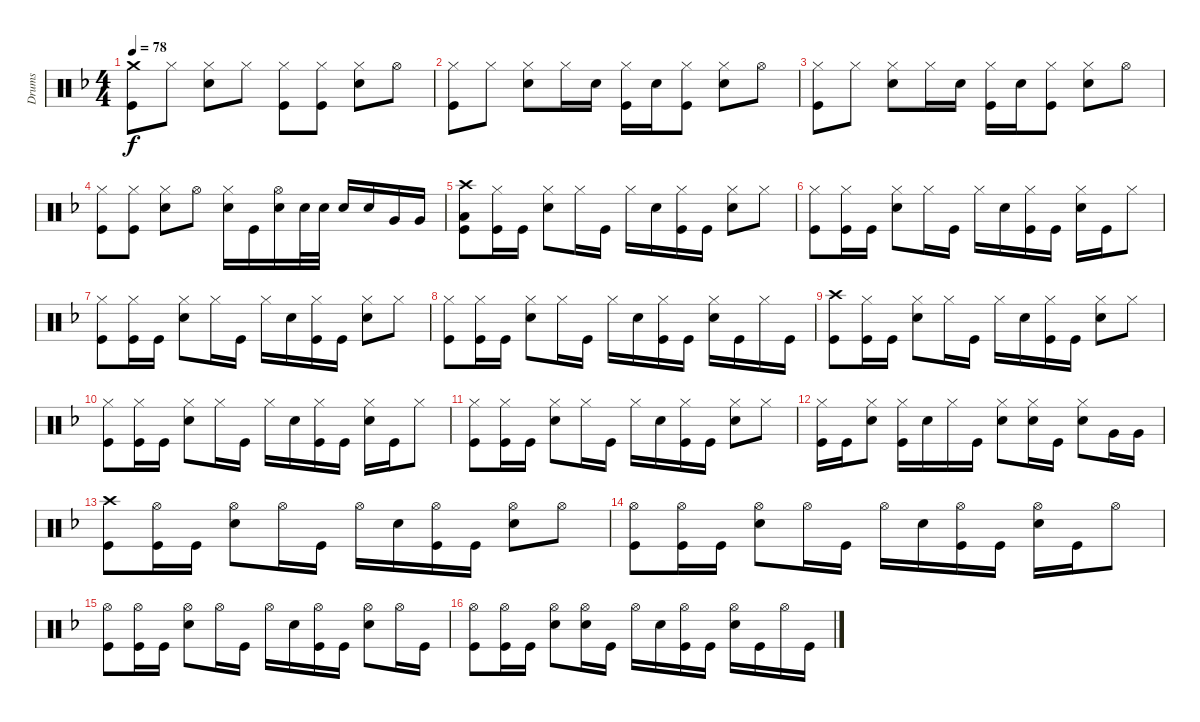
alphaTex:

\track ("Drums" "Drums") {instrument percussion}
\staff {score}
\articulation defaults
\ts (4 4)
\tempo 78
\clef neutral
\ks dminor
("Crash medium (hit)" "Kick (hit)").8{dy f} "Hi-Hat (closed)".8 ("Hi-Hat (closed)" "Snare (hit) 2").8 "Hi-Hat (closed)".8 ("Hi-Hat (closed)" "Kick (hit)").8 ("Hi-Hat (closed)" "Kick (hit)").8 ("Hi-Hat (closed)" "Snare (hit) 2").8 "Hi-Hat (open)".8 |
("Hi-Hat (closed)" "Kick (hit)").8 "Hi-Hat (closed)".8 ("Hi-Hat (closed)" "Snare (hit) 2").8 "Hi-Hat (closed)".16 "Snare (hit) 2".16 ("Hi-Hat (closed)" "Kick (hit)").16 "Snare (hit) 2".16 ("Hi-Hat (closed)" "Kick (hit)").8 ("Hi-Hat (closed)" "Snare (hit) 2").8 "Hi-Hat (open)".8 |
("Hi-Hat (closed)" "Kick (hit)").8 "Hi-Hat (closed)".8 ("Hi-Hat (closed)" "Snare (hit) 2").8 "Hi-Hat (closed)".16 "Snare (hit) 2".16 ("Hi-Hat (closed)" "Kick (hit)").16 "Snare (hit) 2".16 ("Hi-Hat (closed)" "Kick (hit)").8 ("Hi-Hat (closed)" "Snare (hit) 2").8 "Hi-Hat (open)".8 |
("Hi-Hat (closed)" "Kick (hit)").8 ("Hi-Hat (closed)" "Kick (hit)").8 ("Hi-Hat (closed)" "Snare (hit) 2").8 "Hi-Hat (open)".8 ("Hi-Hat (closed)" "Snare (hit) 2").16 "Kick (hit)".16 ("Hi-Hat (open)" "Snare (hit) 2").16 "Snare (hit) 2".32 "Snare (hit) 2".32 "Snare (hit) 2".16 "Snare (hit) 2".16 "Very Low Tom (hit)".16 "Very Low Tom (hit)".16 |
("Crash high (hit)" "Low Floor Tom (hit)" "Kick (hit)").8 ("Hi-Hat (closed)" "Kick (hit)").16 "Kick (hit)".16 ("Hi-Hat (closed)" "Snare (hit) 2").8 "Hi-Hat (closed)".16 "Kick (hit)".16 "Hi-Hat (closed)".16 "Snare (hit) 2".16 ("Hi-Hat (closed)" "Kick (hit)").16 "Kick (hit)".16 ("Hi-Hat (closed)" "Snare (hit) 2").8 "Hi-Hat (closed)".8 |
("Hi-Hat (closed)" "Kick (hit)").8 ("Hi-Hat (closed)" "Kick (hit)").16 "Kick (hit)".16 ("Hi-Hat (closed)" "Snare (hit) 2").8 "Hi-Hat (closed)".16 "Kick (hit)".16 "Hi-Hat (closed)".16 "Snare (hit) 2".16 ("Hi-Hat (closed)" "Kick (hit)").16 "Kick (hit)".16 ("Hi-Hat (closed)" "Snare (hit) 2").16 "Kick (hit)".16 "Hi-Hat (closed)".8 |
("Hi-Hat (closed)" "Kick (hit)").8 ("Hi-Hat (closed)" "Kick (hit)").16 "Kick (hit)".16 ("Hi-Hat (closed)" "Snare (hit) 2").8 "Hi-Hat (closed)".16 "Kick (hit)".16 "Hi-Hat (closed)".16 "Snare (hit) 2".16 ("Hi-Hat (closed)" "Kick (hit)").16 "Kick (hit)".16 ("Hi-Hat (closed)" "Snare (hit) 2").8 "Hi-Hat (closed)".8 |
("Hi-Hat (closed)" "Kick (hit)").8 ("Hi-Hat (closed)" "Kick (hit)").16 "Kick (hit)".16 ("Hi-Hat (closed)" "Snare (hit) 2").8 "Hi-Hat (closed)".16 "Kick (hit)".16 "Hi-Hat (closed)".16 "Snare (hit) 2".16 ("Hi-Hat (closed)" "Kick (hit)").16 "Kick (hit)".16 ("Hi-Hat (closed)" "Snare (hit) 2").16 "Kick (hit)".16 "Hi-Hat (closed)".16 "Kick (hit)".16 |
("Crash high (hit)" "Kick (hit)").8 ("Hi-Hat (closed)" "Kick (hit)").16 "Kick (hit)".16 ("Hi-Hat (closed)" "Snare (hit) 2").8 "Hi-Hat (closed)".16 "Kick (hit)".16 "Hi-Hat (closed)".16 "Snare (hit) 2".16 ("Hi-Hat (closed)" "Kick (hit)").16 "Kick (hit)".16 ("Hi-Hat (closed)" "Snare (hit) 2").8 "Hi-Hat (closed)".8 |
("Hi-Hat (closed)" "Kick (hit)").8 ("Hi-Hat (closed)" "Kick (hit)").16 "Kick (hit)".16 ("Hi-Hat (closed)" "Snare (hit) 2").8 "Hi-Hat (closed)".16 "Kick (hit)".16 "Hi-Hat (closed)".16 "Snare (hit) 2".16 ("Hi-Hat (closed)" "Kick (hit)").16 "Kick (hit)".16 ("Hi-Hat (closed)" "Snare (hit) 2").16 "Kick (hit)".16 "Hi-Hat (closed)".8 |
("Hi-Hat (closed)" "Kick (hit)").8 ("Hi-Hat (closed)" "Kick (hit)").16 "Kick (hit)".16 ("Hi-Hat (closed)" "Snare (hit) 2").8 "Hi-Hat (closed)".16 "Kick (hit)".16 "Hi-Hat (closed)".16 "Snare (hit) 2".16 ("Hi-Hat (closed)" "Kick (hit)").16 "Kick (hit)".16 ("Hi-Hat (closed)" "Snare (hit) 2").8 "Hi-Hat (closed)".8 |
("Hi-Hat (closed)" "Kick (hit)").16 "Kick (hit)".16 ("Hi-Hat (closed)" "Snare (hit) 2").8 ("Hi-Hat (closed)" "Kick (hit)").16 "Snare (hit) 2".16 "Hi-Hat (closed)".16 "Kick (hit)".16 ("Hi-Hat (closed)" "Snare (hit) 2").8 ("Hi-Hat (closed)" "Snare (hit) 2").16 "Kick (hit)".16 ("Hi-Hat (closed)" "Snare (hit) 2").8 "Very Low Tom (hit)".16 "Very Low Tom (hit)".16 |
("Crash high (hit)" "Kick (hit)").8 ("Hi-Hat (open)" "Kick (hit)").16 "Kick (hit)".16 ("Hi-Hat (open)" "Snare (hit) 2").8 "Hi-Hat (open)".16 "Kick (hit)".16 "Hi-Hat (open)".16 "Snare (hit) 2".16 ("Hi-Hat (open)" "Kick (hit)").16 "Kick (hit)".16 ("Hi-Hat (open)" "Snare (hit) 2").8 "Hi-Hat (open)".8 |
("Hi-Hat (open)" "Kick (hit)").8 ("Hi-Hat (open)" "Kick (hit)").16 "Kick (hit)".16 ("Hi-Hat (open)" "Snare (hit) 2").8 "Hi-Hat (open)".16 "Kick (hit)".16 "Hi-Hat (open)".16 "Snare (hit) 2".16 ("Hi-Hat (open)" "Kick (hit)").16 "Kick (hit)".16 ("Hi-Hat (open)" "Snare (hit) 2").16 "Kick (hit)".16 "Hi-Hat (open)".8 |
("Hi-Hat (open)" "Kick (hit)").8 ("Hi-Hat (open)" "Kick (hit)").16 "Kick (hit)".16 ("Hi-Hat (open)" "Snare (hit) 2").8 "Hi-Hat (open)".16 "Kick (hit)".16 "Hi-Hat (open)".16 "Snare (hit) 2".16 ("Hi-Hat (open)" "Kick (hit)").16 "Kick (hit)".16 ("Hi-Hat (open)" "Snare (hit) 2").8 "Hi-Hat (open)".16 "Kick (hit)".16 |
("Hi-Hat (open)" "Kick (hit)").8 ("Hi-Hat (open)" "Kick (hit)").16 "Kick (hit)".16 ("Hi-Hat (open)" "Snare (hit) 2").8 ("Hi-Hat (open)" "Snare (hit) 2").16 "Kick (hit)".16 "Hi-Hat (open)".16 "Snare (hit) 2".16 ("Hi-Hat (open)" "Kick (hit)").16 "Kick (hit)".16 ("Hi-Hat (open)" "Snare (hit) 2").16 "Kick (hit)".16 "Hi-Hat (open)".16 "Kick (hit)".16
